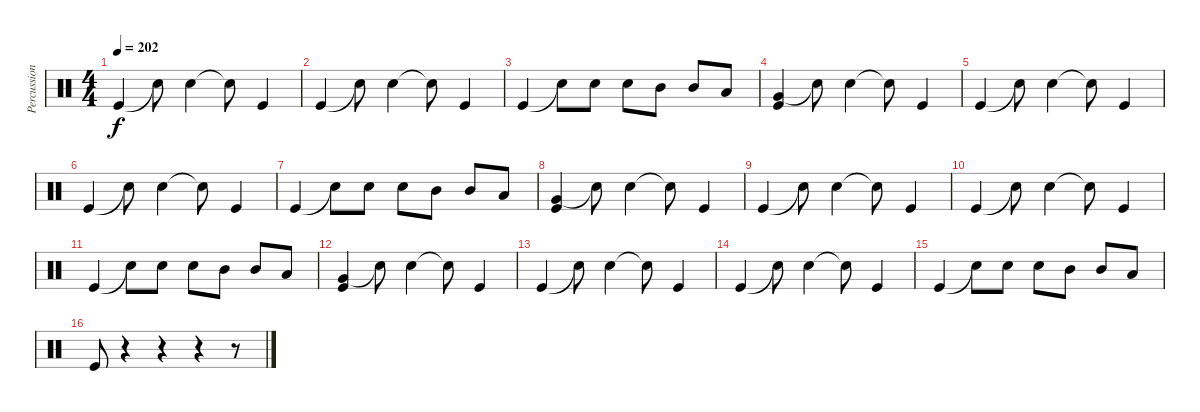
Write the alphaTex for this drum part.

\track ("Percussion" "Percussion") {instrument percussion}
\staff {score}
\articulation defaults
\ts (4 4)
\tempo 202
\clef neutral
\ks c "Kick (hit)".4{dy f} "Snare (hit)"{t}.8 "Electric Snare (hit)".4 "Snare (hit)"{t}.8 "Kick (hit)".4
|
"Kick (hit)".4 "Snare (hit)"{t}.8 "Electric Snare (hit)".4 "Snare (hit)"{t}.8 "Kick (hit)".4 |
"Kick (hit)".4 "Snare (hit)"{t}.8 "Electric Snare (hit)".8 "Electric Snare (hit)".8 "Mid Tom (hit)".8 "Mid Tom (hit)".8 "Low Tom (hit)".8 |
("Very Low Tom (hit)" "Kick (hit)").4 "Snare (hit)"{t}.8 "Electric Snare (hit)".4 "Snare (hit)"{t}.8 "Kick (hit)".4 |
"Kick (hit)".4 "Snare (hit)"{t}.8 "Electric Snare (hit)".4 "Snare (hit)"{t}.8 "Kick (hit)".4 |
"Kick (hit)".4 "Snare (hit)"{t}.8 "Electric Snare (hit)".4 "Snare (hit)"{t}.8 "Kick (hit)".4 |
"Kick (hit)".4 "Snare (hit)"{t}.8 "Electric Snare (hit)".8 "Electric Snare (hit)".8 "Mid Tom (hit)".8 "Mid Tom (hit)".8 "Low Tom (hit)".8 |
("Very Low Tom (hit)" "Kick (hit)").4 "Snare (hit)"{t}.8 "Electric Snare (hit)".4 "Snare (hit)"{t}.8 "Kick (hit)".4 |
"Kick (hit)".4 "Snare (hit)"{t}.8 "Electric Snare (hit)".4 "Snare (hit)"{t}.8 "Kick (hit)".4 |
"Kick (hit)".4 "Snare (hit)"{t}.8 "Electric Snare (hit)".4 "Snare (hit)"{t}.8 "Kick (hit)".4 |
"Kick (hit)".4 "Snare (hit)"{t}.8 "Electric Snare (hit)".8 "Electric Snare (hit)".8 "Mid Tom (hit)".8 "Mid Tom (hit)".8 "Low Tom (hit)".8 |
("Very Low Tom (hit)" "Kick (hit)").4 "Snare (hit)"{t}.8 "Electric Snare (hit)".4 "Snare (hit)"{t}.8 "Kick (hit)".4 |
"Kick (hit)".4 "Snare (hit)"{t}.8 "Electric Snare (hit)".4 "Snare (hit)"{t}.8 "Kick (hit)".4 |
"Kick (hit)".4 "Snare (hit)"{t}.8 "Electric Snare (hit)".4 "Snare (hit)"{t}.8 "Kick (hit)".4 |
"Kick (hit)".4 "Snare (hit)"{t}.8 "Electric Snare (hit)".8 "Electric Snare (hit)".8 "Mid Tom (hit)".8 "Mid Tom (hit)".8 "Low Tom (hit)".8 |
"Kick (hit)".8 r.4 r.4 r.4 r.8
